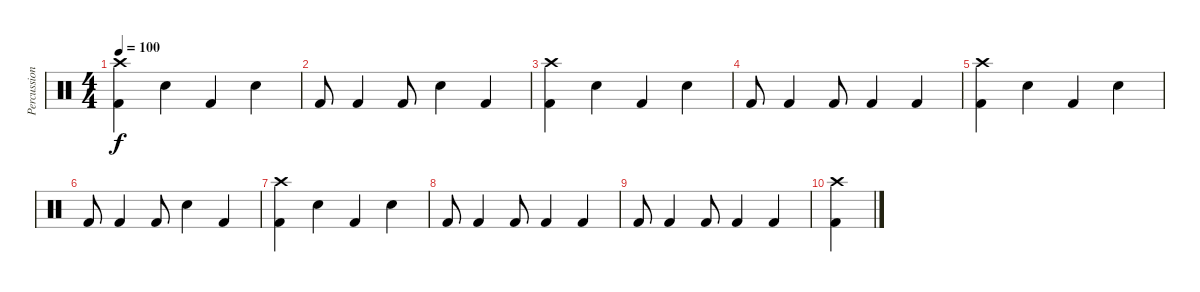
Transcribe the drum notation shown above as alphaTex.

\track ("Percussion" "Percussion") {instrument percussion}
\staff {score}
\articulation defaults
\ts (4 4)
\tempo 100
\clef neutral
\ks c
("Crash high (hit)" "Kick (hit) 2").4{dy f} "Snare (hit) 2".4 "Kick (hit) 2".4 "Snare (hit) 2".4 |
"Kick (hit) 2".8 "Kick (hit) 2".4 "Kick (hit) 2".8 "Snare (hit) 2".4 "Kick (hit) 2".4 |
("Crash high (hit)" "Kick (hit) 2").4 "Snare (hit) 2".4 "Kick (hit) 2".4 "Snare (hit) 2".4 |
"Kick (hit) 2".8 "Kick (hit) 2".4 "Kick (hit) 2".8 "Kick (hit) 2".4 "Kick (hit) 2".4 |
("Crash high (hit)" "Kick (hit) 2").4 "Snare (hit) 2".4 "Kick (hit) 2".4 "Snare (hit) 2".4 |
"Kick (hit) 2".8 "Kick (hit) 2".4 "Kick (hit) 2".8 "Snare (hit) 2".4 "Kick (hit) 2".4 |
("Crash high (hit)" "Kick (hit) 2").4 "Snare (hit) 2".4 "Kick (hit) 2".4 "Snare (hit) 2".4 |
"Kick (hit) 2".8 "Kick (hit) 2".4 "Kick (hit) 2".8 "Kick (hit) 2".4 "Kick (hit) 2".4 |
"Kick (hit) 2".8 "Kick (hit) 2".4 "Kick (hit) 2".8 "Kick (hit) 2".4 "Kick (hit) 2".4 |
("Crash high (hit)" "Kick (hit) 2").4
